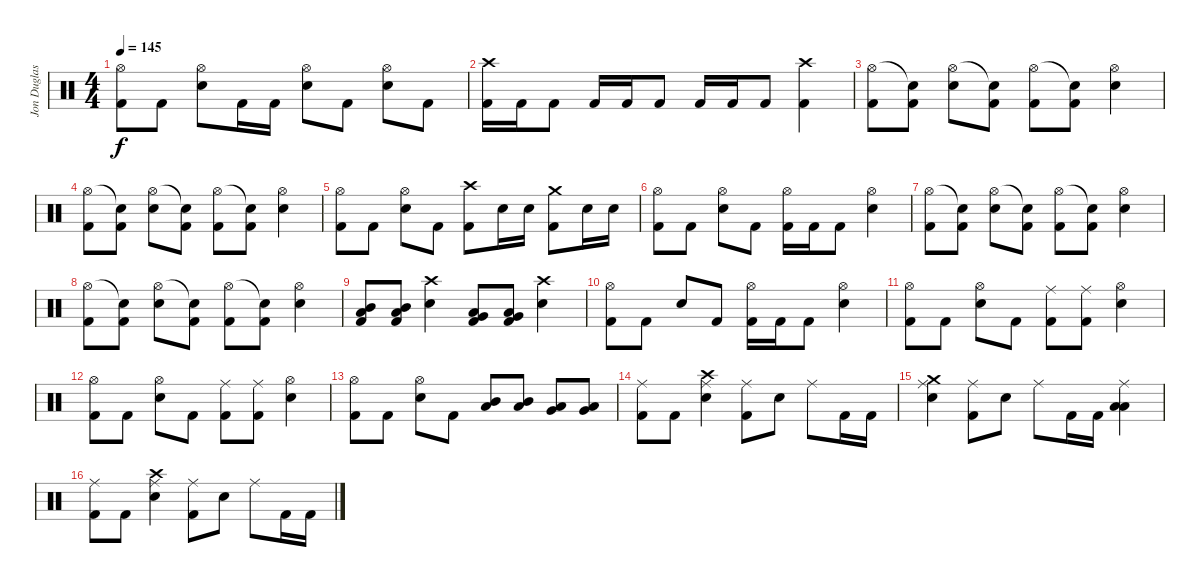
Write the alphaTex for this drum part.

\track ("Jon Duglas (Drums)" "Jon Duglas") {instrument percussion}
\staff {score}
\articulation defaults
\ts (4 4)
\tempo 145
\clef neutral
\ks c
("Kick (hit) 2" "Hi-Hat (open)").8{dy f} "Kick (hit) 2".8 ("Electric Snare (hit)" "Hi-Hat (open)").8 "Kick (hit) 2".16 "Kick (hit) 2".16 ("Electric Snare (hit)" "Hi-Hat (open)").8 "Kick (hit) 2".8 ("Electric Snare (hit)" "Hi-Hat (open)").8 "Kick (hit) 2".8 |
("Kick (hit) 2" "Crash high (hit)").16 "Kick (hit) 2".16 "Kick (hit) 2".8 "Kick (hit) 2".16 "Kick (hit) 2".16 "Kick (hit) 2".8 "Kick (hit) 2".16 "Kick (hit) 2".16 "Kick (hit) 2".8 ("Kick (hit) 2" "Crash high (hit)").4 |
("Kick (hit) 2" "Hi-Hat (open)").8 ("Kick (hit) 2" "Snare (hit)"{t}).8 ("Electric Snare (hit)" "Hi-Hat (open)").8 ("Kick (hit) 2" "Snare (hit)"{t}).8 ("Kick (hit) 2" "Hi-Hat (open)").8 ("Kick (hit) 2" "Snare (hit)"{t}).8 ("Electric Snare (hit)" "Hi-Hat (open)").4 |
("Kick (hit) 2" "Hi-Hat (open)").8 ("Kick (hit) 2" "Snare (hit)"{t}).8 ("Electric Snare (hit)" "Hi-Hat (open)").8 ("Kick (hit) 2" "Snare (hit)"{t}).8 ("Kick (hit) 2" "Hi-Hat (open)").8 ("Kick (hit) 2" "Snare (hit)"{t}).8 ("Electric Snare (hit)" "Hi-Hat (open)").4 |
("Kick (hit) 2" "Hi-Hat (open)").8 "Kick (hit) 2".8 ("Electric Snare (hit)" "Hi-Hat (open)").8 "Kick (hit) 2".8 ("Kick (hit) 2" "Crash high (hit)").8 "Electric Snare (hit)".16 "Electric Snare (hit)".16 ("Kick (hit) 2" "Crash medium (hit)").8 "Electric Snare (hit)".16 "Electric Snare (hit)".16 |
("Kick (hit) 2" "Hi-Hat (open)").8 "Kick (hit) 2".8 ("Electric Snare (hit)" "Hi-Hat (open)").8 "Kick (hit) 2".8 ("Kick (hit) 2" "Hi-Hat (open)").16 "Kick (hit) 2".16 "Kick (hit) 2".8 ("Electric Snare (hit)" "Hi-Hat (open)").4 |
("Kick (hit) 2" "Hi-Hat (open)").8 ("Kick (hit) 2" "Snare (hit)"{t}).8 ("Electric Snare (hit)" "Hi-Hat (open)").8 ("Kick (hit) 2" "Snare (hit)"{t}).8 ("Kick (hit) 2" "Hi-Hat (open)").8 ("Kick (hit) 2" "Snare (hit)"{t}).8 ("Electric Snare (hit)" "Hi-Hat (open)").4 |
("Kick (hit) 2" "Hi-Hat (open)").8 ("Kick (hit) 2" "Snare (hit)"{t}).8 ("Electric Snare (hit)" "Hi-Hat (open)").8 ("Kick (hit) 2" "Snare (hit)"{t}).8 ("Kick (hit) 2" "Hi-Hat (open)").8 ("Kick (hit) 2" "Snare (hit)"{t}).8 ("Electric Snare (hit)" "Hi-Hat (open)").4 |
("Kick (hit) 2" "Mid Tom (hit)" "Low Tom (hit)").8 ("Kick (hit) 2" "Mid Tom (hit)" "Low Tom (hit)").8 ("Electric Snare (hit)" "Crash high (hit)").4 ("Kick (hit) 2" "Low Tom (hit)" "Very Low Tom (hit)").8 ("Kick (hit) 2" "Low Tom (hit)" "Very Low Tom (hit)").8 ("Electric Snare (hit)" "Crash high (hit)").4 |
("Kick (hit) 2" "Hi-Hat (open)").8 "Kick (hit) 2".8 "Electric Snare (hit)".8 "Kick (hit) 2".8 ("Kick (hit) 2" "Hi-Hat (open)").16 "Kick (hit) 2".16 "Kick (hit) 2".8 ("Electric Snare (hit)" "Hi-Hat (open)").4 |
("Kick (hit) 2" "Hi-Hat (open)").8 "Kick (hit) 2".8 ("Electric Snare (hit)" "Hi-Hat (open)").8 "Kick (hit) 2".8 ("Kick (hit) 2" "Ride (middle)").8 ("Kick (hit) 2" "Ride (middle)").8 ("Electric Snare (hit)" "Hi-Hat (open)").4 |
("Kick (hit) 2" "Hi-Hat (open)").8 "Kick (hit) 2".8 ("Electric Snare (hit)" "Hi-Hat (open)").8 "Kick (hit) 2".8 ("Kick (hit) 2" "Ride (middle)").8 ("Kick (hit) 2" "Ride (middle)").8 ("Electric Snare (hit)" "Hi-Hat (open)").4 |
("Kick (hit) 2" "Hi-Hat (open)").8 "Kick (hit) 2".8 ("Electric Snare (hit)" "Hi-Hat (open)").8 "Kick (hit) 2".8 ("Mid Tom (hit)" "Low Tom (hit)").8 ("Mid Tom (hit)" "Low Tom (hit)").8 ("Low Tom (hit)" "Very Low Tom (hit)").8 ("Low Tom (hit)" "Very Low Tom (hit)").8 |
("Ride (middle)" "Kick (hit) 2").8 "Kick (hit) 2".8 ("Ride (middle)" "Electric Snare (hit)" "Crash high (hit)").4 ("Ride (middle)" "Kick (hit) 2").8 "Electric Snare (hit)".8 "Ride (middle)".8 "Kick (hit) 2".16 "Kick (hit) 2".16 |
("Ride (middle)" "Electric Snare (hit)" "Crash medium (hit)").4 ("Ride (middle)" "Kick (hit) 2").8 "Electric Snare (hit)".8 "Ride (middle)".8 "Kick (hit) 2".16 "Kick (hit) 2".16 ("Ride (middle)" "Low Tom (hit)" "Low Tom (hit)").4 |
("Ride (middle)" "Kick (hit) 2").8 "Kick (hit) 2".8 ("Ride (middle)" "Electric Snare (hit)" "Crash high (hit)").4 ("Ride (middle)" "Kick (hit) 2").8 "Electric Snare (hit)".8 "Ride (middle)".8 "Kick (hit) 2".16 "Kick (hit) 2".16
